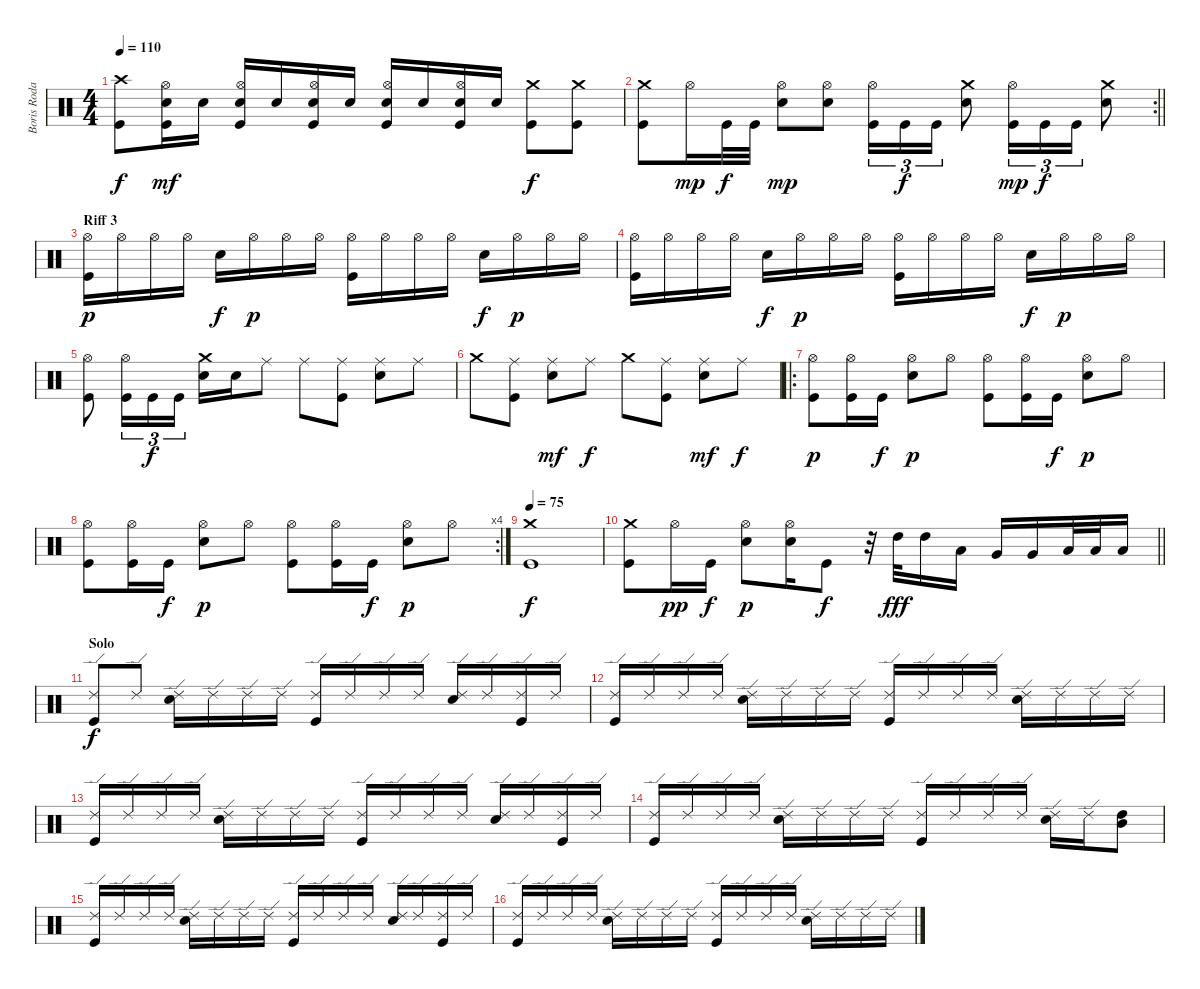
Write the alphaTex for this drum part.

\track ("Boris Rodas" "Boris Roda") {instrument percussion}
\staff {score}
\articulation defaults
\ts (4 4)
\tempo 110
\clef neutral
\ks c
("Crash high (hit)" "Kick (hit)").8{dy f} ("Hi-Hat (open)" "Electric Snare (hit)" "Kick (hit)").16{dy mf} "Electric Snare (hit)".16 ("Hi-Hat (open)" "Electric Snare (hit)" "Kick (hit)").16 "Electric Snare (hit)".16 ("Hi-Hat (open)" "Electric Snare (hit)" "Kick (hit)").16 "Electric Snare (hit)".16 ("Hi-Hat (open)" "Electric Snare (hit)" "Kick (hit)").16 "Electric Snare (hit)".16 ("Hi-Hat (open)" "Electric Snare (hit)" "Kick (hit)").16 "Electric Snare (hit)".16 ("Crash medium (hit)" "Kick (hit)").8{dy f} ("Crash medium (hit)" "Kick (hit)").8 |
\rc 2
\barLineRight lightlight
("Crash medium (hit)" "Kick (hit)").8 "Hi-Hat (open)".16{dy mp} "Kick (hit)".32{dy f} "Kick (hit)".32 ("Hi-Hat (open)" "Electric Snare (hit)").8{dy mp} ("Hi-Hat (open)" "Electric Snare (hit)").8 ("Hi-Hat (open)" "Kick (hit)").16{tu (3 2)} "Kick (hit)".16{tu (3 2) dy f} "Kick (hit)".16{tu (3 2)} ("Crash medium (hit)" "Electric Snare (hit)").8 ("Hi-Hat (open)" "Kick (hit)").16{tu (3 2) dy mp} "Kick (hit)".16{tu (3 2) dy f} "Kick (hit)".16{tu (3 2)} ("Crash medium (hit)" "Electric Snare (hit)").8 |
\section ("" "Riff 3")
("Hi-Hat (open)" "Kick (hit)").16{dy p} "Hi-Hat (open)".16 "Hi-Hat (open)".16 "Hi-Hat (open)".16 "Electric Snare (hit)".16{dy f} "Hi-Hat (open)".16{dy p} "Hi-Hat (open)".16 "Hi-Hat (open)".16 ("Hi-Hat (open)" "Kick (hit)").16 "Hi-Hat (open)".16 "Hi-Hat (open)".16 "Hi-Hat (open)".16 "Electric Snare (hit)".16{dy f} "Hi-Hat (open)".16{dy p} "Hi-Hat (open)".16 "Hi-Hat (open)".16 |
("Hi-Hat (open)" "Kick (hit)").16 "Hi-Hat (open)".16 "Hi-Hat (open)".16 "Hi-Hat (open)".16 "Electric Snare (hit)".16{dy f} "Hi-Hat (open)".16{dy p} "Hi-Hat (open)".16 "Hi-Hat (open)".16 ("Hi-Hat (open)" "Kick (hit)").16 "Hi-Hat (open)".16 "Hi-Hat (open)".16 "Hi-Hat (open)".16 "Electric Snare (hit)".16{dy f} "Hi-Hat (open)".16{dy p} "Hi-Hat (open)".16 "Hi-Hat (open)".16 |
("Hi-Hat (open)" "Kick (hit)").8 ("Hi-Hat (open)" "Kick (hit)").16{tu (3 2)} "Kick (hit)".16{tu (3 2) dy f} "Kick (hit)".16{tu (3 2)} ("Crash medium (hit)" "Electric Snare (hit)").16 "Electric Snare (hit)".16 "Ride (middle)".8 "Ride (middle)".8 ("Ride (middle)" "Kick (hit)").8 ("Ride (middle)" "Electric Snare (hit)").8 "Ride (middle)".8 |
"Crash medium (hit)".8 ("Ride (middle)" "Kick (hit)").8 ("Ride (middle)" "Electric Snare (hit)").8{dy mf} "Ride (middle)".8{dy f} "Crash medium (hit)".8 ("Ride (middle)" "Kick (hit)").8 ("Ride (middle)" "Electric Snare (hit)").8{dy mf} "Ride (middle)".8{dy f} |
\ro
("Hi-Hat (open)" "Kick (hit)").8{dy p} ("Hi-Hat (open)" "Kick (hit)").16 "Kick (hit)".16{dy f} ("Hi-Hat (open)" "Electric Snare (hit)").8{dy p} "Hi-Hat (open)".8 ("Hi-Hat (open)" "Kick (hit)").8 ("Hi-Hat (open)" "Kick (hit)").16 "Kick (hit)".16{dy f} ("Hi-Hat (open)" "Electric Snare (hit)").8{dy p} "Hi-Hat (open)".8 |
\rc 4
("Hi-Hat (open)" "Kick (hit)").8 ("Hi-Hat (open)" "Kick (hit)").16 "Kick (hit)".16{dy f} ("Hi-Hat (open)" "Electric Snare (hit)").8{dy p} "Hi-Hat (open)".8 ("Hi-Hat (open)" "Kick (hit)").8 ("Hi-Hat (open)" "Kick (hit)").16 "Kick (hit)".16{dy f} ("Hi-Hat (open)" "Electric Snare (hit)").8{dy p} "Hi-Hat (open)".8 |
\tempo 75
("Crash medium (hit)" "Kick (hit)").1{dy f} |
\barLineRight lightlight
("Crash medium (hit)" "Kick (hit)").8 "Hi-Hat (open)".16{dy pp} "Kick (hit)".16{dy f} ("Hi-Hat (open)" "Electric Snare (hit)").8{dy p} ("Hi-Hat (open)" "Electric Snare (hit)").16 "Kick (hit)".8{dy f} r.32 "High Tom (hit)".32{dy fff} "High Tom (hit)".16 "Low Tom (hit)".16 "Very Low Tom (hit)".16 "Very Low Tom (hit)".16 "Low Floor Tom (hit)".32 "Low Floor Tom (hit)".32 "Low Floor Tom (hit)".16 |
\section ("" "Solo")
("Ride (edge) 2" "Kick (hit)").8{dy f} "Ride (edge) 2".8 ("Ride (edge) 2" "Electric Snare (hit)").16 "Ride (edge) 2".16 "Ride (edge) 2".16 "Ride (edge) 2".16 ("Ride (edge) 2" "Kick (hit)").16 "Ride (edge) 2".16 "Ride (edge) 2".16 "Ride (edge) 2".16 ("Ride (edge) 2" "Electric Snare (hit)").16 "Ride (edge) 2".16 ("Ride (edge) 2" "Kick (hit)").16 "Ride (edge) 2".16 |
("Ride (edge) 2" "Kick (hit)").16 "Ride (edge) 2".16 "Ride (edge) 2".16 "Ride (edge) 2".16 ("Ride (edge) 2" "Electric Snare (hit)").16 "Ride (edge) 2".16 "Ride (edge) 2".16 "Ride (edge) 2".16 ("Ride (edge) 2" "Kick (hit)").16 "Ride (edge) 2".16 "Ride (edge) 2".16 "Ride (edge) 2".16 ("Ride (edge) 2" "Electric Snare (hit)").16 "Ride (edge) 2".16 "Ride (edge) 2".16 "Ride (edge) 2".16 |
("Ride (edge) 2" "Kick (hit)").16 "Ride (edge) 2".16 "Ride (edge) 2".16 "Ride (edge) 2".16 ("Ride (edge) 2" "Electric Snare (hit)").16 "Ride (edge) 2".16 "Ride (edge) 2".16 "Ride (edge) 2".16 ("Ride (edge) 2" "Kick (hit)").16 "Ride (edge) 2".16 "Ride (edge) 2".16 "Ride (edge) 2".16 ("Ride (edge) 2" "Electric Snare (hit)").16 "Ride (edge) 2".16 ("Ride (edge) 2" "Kick (hit)").16 "Ride (edge) 2".16 |
("Ride (edge) 2" "Kick (hit)").16 "Ride (edge) 2".16 "Ride (edge) 2".16 "Ride (edge) 2".16 ("Ride (edge) 2" "Electric Snare (hit)").16 "Ride (edge) 2".16 "Ride (edge) 2".16 "Ride (edge) 2".16 ("Ride (edge) 2" "Kick (hit)").16 "Ride (edge) 2".16 "Ride (edge) 2".16 "Ride (edge) 2".16 ("Ride (edge) 2" "Electric Snare (hit)").16 "Ride (edge) 2".16 ("Mid Tom (hit)" "High Tom (hit)").8 |
("Ride (edge) 2" "Kick (hit)").16 "Ride (edge) 2".16 "Ride (edge) 2".16 "Ride (edge) 2".16 ("Ride (edge) 2" "Electric Snare (hit)").16 "Ride (edge) 2".16 "Ride (edge) 2".16 "Ride (edge) 2".16 ("Ride (edge) 2" "Kick (hit)").16 "Ride (edge) 2".16 "Ride (edge) 2".16 "Ride (edge) 2".16 ("Ride (edge) 2" "Electric Snare (hit)").16 "Ride (edge) 2".16 ("Ride (edge) 2" "Kick (hit)").16 "Ride (edge) 2".16 |
("Ride (edge) 2" "Kick (hit)").16 "Ride (edge) 2".16 "Ride (edge) 2".16 "Ride (edge) 2".16 ("Ride (edge) 2" "Electric Snare (hit)").16 "Ride (edge) 2".16 "Ride (edge) 2".16 "Ride (edge) 2".16 ("Ride (edge) 2" "Kick (hit)").16 "Ride (edge) 2".16 "Ride (edge) 2".16 "Ride (edge) 2".16 ("Ride (edge) 2" "Electric Snare (hit)").16 "Ride (edge) 2".16 "Ride (edge) 2".16 "Ride (edge) 2".16
